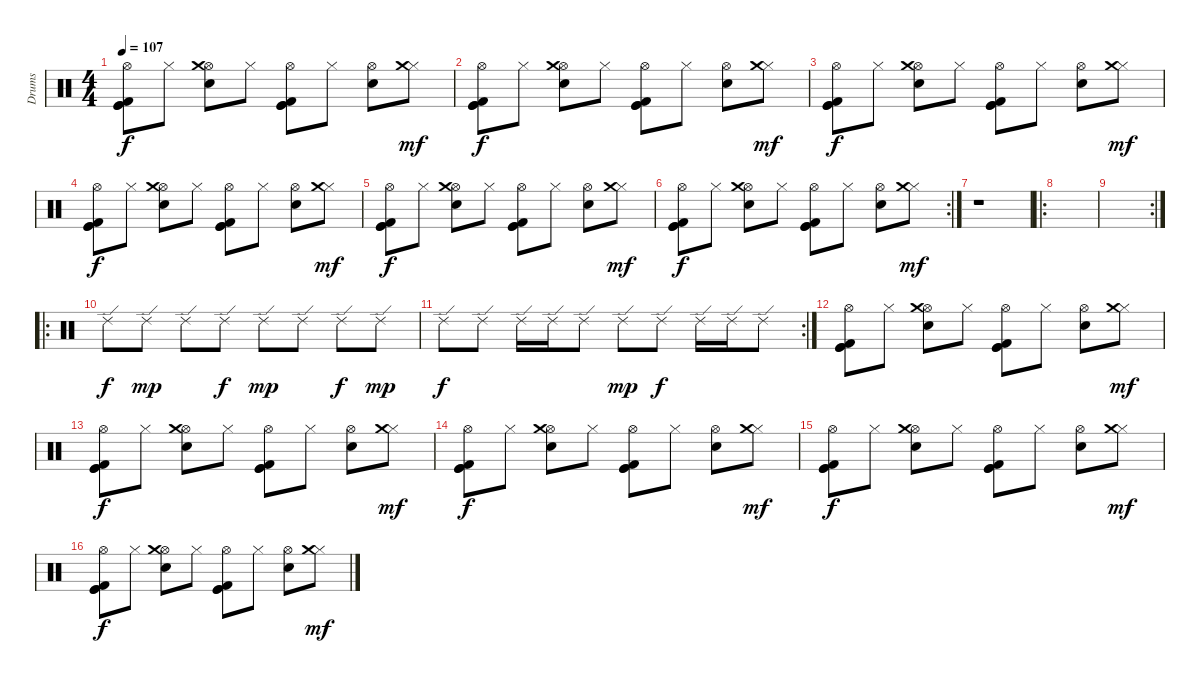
\track ("Drums" "Drums") {instrument percussion}
\staff {score}
\articulation defaults
\ts (4 4)
\tempo 107
\clef neutral
\ks c
("Hi-Hat (open)" "Kick (hit) 2" "Kick (hit)" "Kick (hit)").8{dy f} "Hi-Hat (closed)".8 ("Hi-Hat (open)" "Crash medium (hit)" "Snare (hit) 2").8 "Hi-Hat (closed)".8 ("Hi-Hat (open)" "Kick (hit) 2" "Kick (hit)" "Kick (hit)").8 "Hi-Hat (closed)".8 ("Hi-Hat (open)" "Electric Snare (hit)").8 ("Hi-Hat (closed)" "Crash medium (hit)").8{dy mf} |
("Hi-Hat (open)" "Kick (hit) 2" "Kick (hit)" "Kick (hit)").8{dy f} "Hi-Hat (closed)".8 ("Hi-Hat (open)" "Crash medium (hit)" "Snare (hit) 2").8 "Hi-Hat (closed)".8 ("Hi-Hat (open)" "Kick (hit) 2" "Kick (hit)" "Kick (hit)").8 "Hi-Hat (closed)".8 ("Hi-Hat (open)" "Electric Snare (hit)").8 ("Hi-Hat (closed)" "Crash medium (hit)").8{dy mf} |
("Hi-Hat (open)" "Kick (hit) 2" "Kick (hit)" "Kick (hit)").8{dy f} "Hi-Hat (closed)".8 ("Hi-Hat (open)" "Crash medium (hit)" "Snare (hit) 2").8 "Hi-Hat (closed)".8 ("Hi-Hat (open)" "Kick (hit) 2" "Kick (hit)" "Kick (hit)").8 "Hi-Hat (closed)".8 ("Hi-Hat (open)" "Electric Snare (hit)").8 ("Hi-Hat (closed)" "Crash medium (hit)").8{dy mf} |
("Hi-Hat (open)" "Kick (hit) 2" "Kick (hit)" "Kick (hit)").8{dy f} "Hi-Hat (closed)".8 ("Hi-Hat (open)" "Crash medium (hit)" "Snare (hit) 2").8 "Hi-Hat (closed)".8 ("Hi-Hat (open)" "Kick (hit) 2" "Kick (hit)" "Kick (hit)").8 "Hi-Hat (closed)".8 ("Hi-Hat (open)" "Electric Snare (hit)").8 ("Hi-Hat (closed)" "Crash medium (hit)").8{dy mf} |
("Hi-Hat (open)" "Kick (hit) 2" "Kick (hit)" "Kick (hit)").8{dy f} "Hi-Hat (closed)".8 ("Hi-Hat (open)" "Crash medium (hit)" "Snare (hit) 2").8 "Hi-Hat (closed)".8 ("Hi-Hat (open)" "Kick (hit) 2" "Kick (hit)" "Kick (hit)").8 "Hi-Hat (closed)".8 ("Hi-Hat (open)" "Electric Snare (hit)").8 ("Hi-Hat (closed)" "Crash medium (hit)").8{dy mf} |
\rc 2
("Hi-Hat (open)" "Kick (hit) 2" "Kick (hit)" "Kick (hit)").8{dy f} "Hi-Hat (closed)".8 ("Hi-Hat (open)" "Crash medium (hit)" "Snare (hit) 2").8 "Hi-Hat (closed)".8 ("Hi-Hat (open)" "Kick (hit) 2" "Kick (hit)" "Kick (hit)").8 "Hi-Hat (closed)".8 ("Hi-Hat (open)" "Electric Snare (hit)").8 ("Hi-Hat (closed)" "Crash medium (hit)").8{dy mf} |
r.1 |
\ro
|
\rc 2
|
\ro "Ride (edge) 2".8{dy f} "Ride (edge) 2".8{dy mp} "Ride (edge) 2".8 "Ride (edge) 2".8{dy f} "Ride (edge) 2".8{dy mp} "Ride (edge) 2".8 "Ride (edge) 2".8{dy f} "Ride (edge) 2".8{dy mp}
|
\rc 2 "Ride (edge) 2".8{dy f} "Ride (edge) 2".8 "Ride (edge) 2".16 "Ride (edge) 2".16 "Ride (edge) 2".8 "Ride (edge) 2".8{dy mp} "Ride (edge) 2".8{dy f} "Ride (edge) 2".16 "Ride (edge) 2".16 "Ride (edge) 2".8
|
("Hi-Hat (open)" "Kick (hit) 2" "Kick (hit)" "Kick (hit)").8 "Hi-Hat (closed)".8 ("Hi-Hat (open)" "Crash medium (hit)" "Snare (hit) 2").8 "Hi-Hat (closed)".8 ("Hi-Hat (open)" "Kick (hit) 2" "Kick (hit)" "Kick (hit)").8 "Hi-Hat (closed)".8 ("Hi-Hat (open)" "Electric Snare (hit)").8 ("Hi-Hat (closed)" "Crash medium (hit)").8{dy mf} |
("Hi-Hat (open)" "Kick (hit) 2" "Kick (hit)" "Kick (hit)").8{dy f} "Hi-Hat (closed)".8 ("Hi-Hat (open)" "Crash medium (hit)" "Snare (hit) 2").8 "Hi-Hat (closed)".8 ("Hi-Hat (open)" "Kick (hit) 2" "Kick (hit)" "Kick (hit)").8 "Hi-Hat (closed)".8 ("Hi-Hat (open)" "Electric Snare (hit)").8 ("Hi-Hat (closed)" "Crash medium (hit)").8{dy mf} |
("Hi-Hat (open)" "Kick (hit) 2" "Kick (hit)" "Kick (hit)").8{dy f} "Hi-Hat (closed)".8 ("Hi-Hat (open)" "Crash medium (hit)" "Snare (hit) 2").8 "Hi-Hat (closed)".8 ("Hi-Hat (open)" "Kick (hit) 2" "Kick (hit)" "Kick (hit)").8 "Hi-Hat (closed)".8 ("Hi-Hat (open)" "Electric Snare (hit)").8 ("Hi-Hat (closed)" "Crash medium (hit)").8{dy mf} |
("Hi-Hat (open)" "Kick (hit) 2" "Kick (hit)" "Kick (hit)").8{dy f} "Hi-Hat (closed)".8 ("Hi-Hat (open)" "Crash medium (hit)" "Snare (hit) 2").8 "Hi-Hat (closed)".8 ("Hi-Hat (open)" "Kick (hit) 2" "Kick (hit)" "Kick (hit)").8 "Hi-Hat (closed)".8 ("Hi-Hat (open)" "Electric Snare (hit)").8 ("Hi-Hat (closed)" "Crash medium (hit)").8{dy mf} |
("Hi-Hat (open)" "Kick (hit) 2" "Kick (hit)" "Kick (hit)").8{dy f} "Hi-Hat (closed)".8 ("Hi-Hat (open)" "Crash medium (hit)" "Snare (hit) 2").8 "Hi-Hat (closed)".8 ("Hi-Hat (open)" "Kick (hit) 2" "Kick (hit)" "Kick (hit)").8 "Hi-Hat (closed)".8 ("Hi-Hat (open)" "Electric Snare (hit)").8 ("Hi-Hat (closed)" "Crash medium (hit)").8{dy mf}
